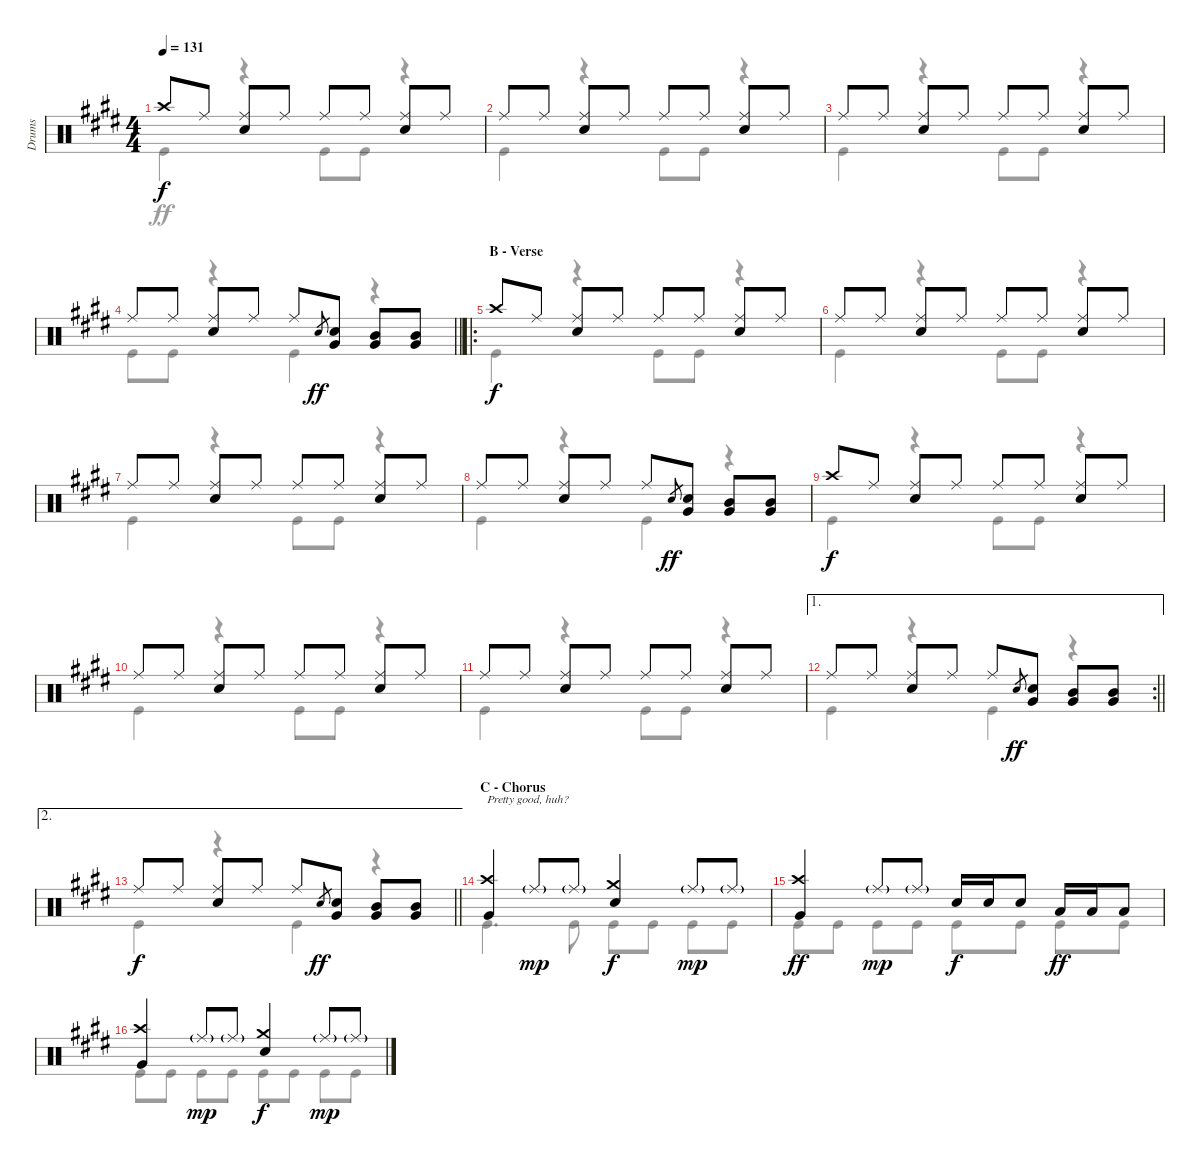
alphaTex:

\track ("Drums" "Drums") {instrument percussion}
\staff {score}
\articulation defaults
\voice
\ts (4 4)
\tempo 131
\clef neutral
\ks c#minor "Crash high (hit)".8{dy f} "Ride (middle)".8
("Ride (middle)" "Electric Snare (hit)").8 "Ride (middle)".8 "Ride (middle)".8 "Ride (middle)".8 ("Ride (middle)" "Electric Snare (hit)").8 "Ride (middle)".8 |
"Ride (middle)".8 "Ride (middle)".8 ("Ride (middle)" "Electric Snare (hit)").8 "Ride (middle)".8 "Ride (middle)".8 "Ride (middle)".8 ("Ride (middle)" "Electric Snare (hit)").8 "Ride (middle)".8 |
"Ride (middle)".8 "Ride (middle)".8 ("Ride (middle)" "Electric Snare (hit)").8 "Ride (middle)".8 "Ride (middle)".8 "Ride (middle)".8 ("Ride (middle)" "Electric Snare (hit)").8 "Ride (middle)".8 |
\barLineRight lightlight "Ride (middle)".8 "Ride (middle)".8
("Ride (middle)" "Electric Snare (hit)").8 "Ride (middle)".8 "Ride (middle)".8 "Electric Snare (hit)".8{gr dy ff} ("Electric Snare (hit)" "Very Low Tom (hit)").8 ("Mid Tom (hit)" "Very Low Tom (hit)").8 ("Mid Tom (hit)" "Very Low Tom (hit)").8 |
\ro
\section ("" "B - Verse")
"Crash high (hit)".8{dy f} "Ride (middle)".8 ("Ride (middle)" "Electric Snare (hit)").8 "Ride (middle)".8 "Ride (middle)".8 "Ride (middle)".8 ("Ride (middle)" "Electric Snare (hit)").8 "Ride (middle)".8 |
"Ride (middle)".8 "Ride (middle)".8 ("Ride (middle)" "Electric Snare (hit)").8 "Ride (middle)".8 "Ride (middle)".8 "Ride (middle)".8 ("Ride (middle)" "Electric Snare (hit)").8 "Ride (middle)".8 |
"Ride (middle)".8 "Ride (middle)".8 ("Ride (middle)" "Electric Snare (hit)").8 "Ride (middle)".8 "Ride (middle)".8 "Ride (middle)".8 ("Ride (middle)" "Electric Snare (hit)").8 "Ride (middle)".8 |
"Ride (middle)".8 "Ride (middle)".8 ("Ride (middle)" "Electric Snare (hit)").8 "Ride (middle)".8 "Ride (middle)".8 "Electric Snare (hit)".8{gr dy ff} ("Electric Snare (hit)" "Very Low Tom (hit)").8 ("Mid Tom (hit)" "Very Low Tom (hit)").8 ("Mid Tom (hit)" "Very Low Tom (hit)").8 |
"Crash high (hit)".8{dy f} "Ride (middle)".8 ("Ride (middle)" "Electric Snare (hit)").8 "Ride (middle)".8 "Ride (middle)".8 "Ride (middle)".8 ("Ride (middle)" "Electric Snare (hit)").8 "Ride (middle)".8 |
"Ride (middle)".8 "Ride (middle)".8 ("Ride (middle)" "Electric Snare (hit)").8 "Ride (middle)".8 "Ride (middle)".8 "Ride (middle)".8 ("Ride (middle)" "Electric Snare (hit)").8 "Ride (middle)".8 |
"Ride (middle)".8 "Ride (middle)".8 ("Ride (middle)" "Electric Snare (hit)").8 "Ride (middle)".8 "Ride (middle)".8 "Ride (middle)".8 ("Ride (middle)" "Electric Snare (hit)").8 "Ride (middle)".8 |
\ae 1
\rc 2
\barLineRight lightlight "Ride (middle)".8 "Ride (middle)".8
("Ride (middle)" "Electric Snare (hit)").8 "Ride (middle)".8 "Ride (middle)".8 "Electric Snare (hit)".8{gr dy ff} ("Electric Snare (hit)" "Very Low Tom (hit)").8 ("Mid Tom (hit)" "Very Low Tom (hit)").8 ("Mid Tom (hit)" "Very Low Tom (hit)").8 |
\ae 2
\barLineRight lightlight "Ride (middle)".8{dy f} "Ride (middle)".8
("Ride (middle)" "Electric Snare (hit)").8 "Ride (middle)".8 "Ride (middle)".8 "Electric Snare (hit)".8{gr dy ff} ("Electric Snare (hit)" "Very Low Tom (hit)").8 ("Mid Tom (hit)" "Very Low Tom (hit)").8 ("Mid Tom (hit)" "Very Low Tom (hit)").8 |
\section ("" "C - Chorus")
("Crash high (hit)" "Very Low Tom (hit)").4{txt "Pretty good, huh?"} "Ride (middle)"{g}.8{dy mp} "Ride (middle)"{g}.8 ("Crash medium (hit)" "Electric Snare (hit)").4{dy f} "Ride (middle)"{g}.8{dy mp} "Ride (middle)"{g}.8 |
("Crash high (hit)" "Very Low Tom (hit)").4{dy ff} "Ride (middle)"{g}.8{dy mp} "Ride (middle)"{g}.8 "Electric Snare (hit)".16{dy f} "Electric Snare (hit)".16 "Electric Snare (hit)".8 "Low Tom (hit)".16{dy ff} "Low Tom (hit)".16 "Low Tom (hit)".8 |
("Crash high (hit)" "Very Low Tom (hit)").4 "Ride (middle)"{g}.8{dy mp} "Ride (middle)"{g}.8 ("Crash medium (hit)" "Electric Snare (hit)").4{dy f} "Ride (middle)"{g}.8{dy mp} "Ride (middle)"{g}.8
\voice
\clef neutral
\ottava regular
\simile none
\ks c#minor "Kick (hit)".4{dy ff}
r.4 "Kick (hit)".8 "Kick (hit)".8 r.4 |
"Kick (hit)".4 r.4 "Kick (hit)".8 "Kick (hit)".8 r.4 |
"Kick (hit)".4 r.4 "Kick (hit)".8 "Kick (hit)".8 r.4 |
\barLineRight lightlight "Kick (hit)".8 "Kick (hit)".8
r.4 "Kick (hit)".4 r.4 |
"Kick (hit)".4 r.4 "Kick (hit)".8 "Kick (hit)".8 r.4 |
"Kick (hit)".4 r.4 "Kick (hit)".8 "Kick (hit)".8 r.4 |
"Kick (hit)".4 r.4 "Kick (hit)".8 "Kick (hit)".8 r.4 |
"Kick (hit)".4 r.4 "Kick (hit)".4 r.4 |
"Kick (hit)".4 r.4 "Kick (hit)".8 "Kick (hit)".8 r.4 |
"Kick (hit)".4 r.4 "Kick (hit)".8 "Kick (hit)".8 r.4 |
"Kick (hit)".4 r.4 "Kick (hit)".8 "Kick (hit)".8 r.4 |
\barLineRight lightlight "Kick (hit)".4
r.4 "Kick (hit)".4 r.4 |
\barLineRight lightlight "Kick (hit)".4
r.4 "Kick (hit)".4 r.4 |
"Kick (hit)".4{d} "Kick (hit)".8 "Kick (hit)".8 "Kick (hit)".8 "Kick (hit)".8 "Kick (hit)".8 |
"Kick (hit)".8 "Kick (hit)".8 "Kick (hit)".8 "Kick (hit)".8 "Kick (hit)".8 "Kick (hit)".8 "Kick (hit)".8 "Kick (hit)".8 |
"Kick (hit)".8 "Kick (hit)".8 "Kick (hit)".8 "Kick (hit)".8 "Kick (hit)".8 "Kick (hit)".8 "Kick (hit)".8 "Kick (hit)".8
